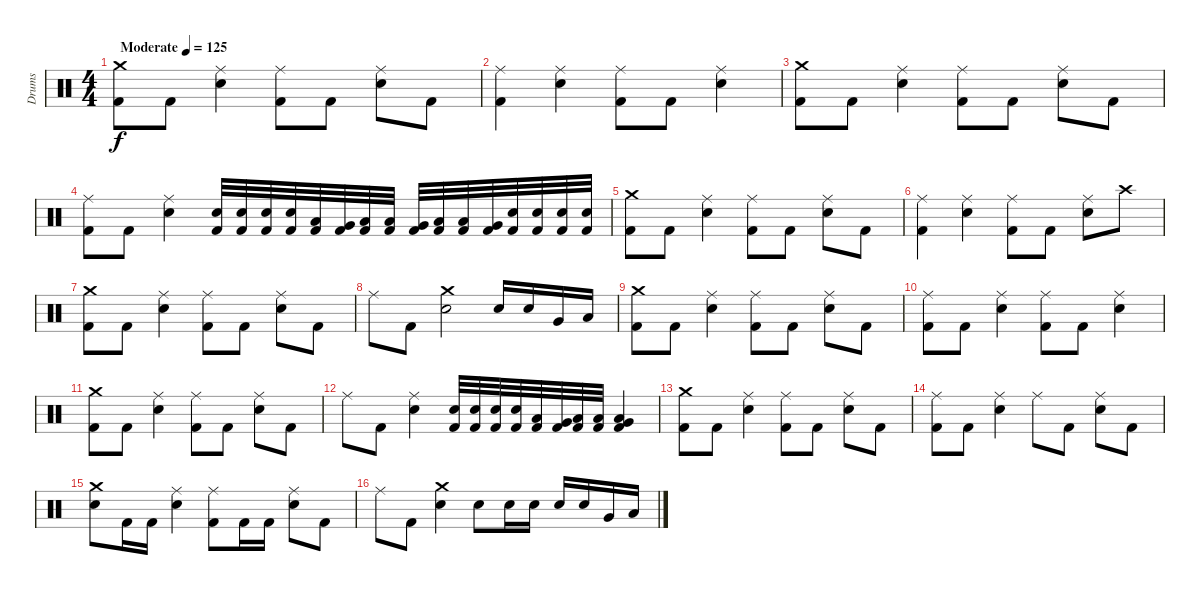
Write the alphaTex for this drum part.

\track ("Drums" "Drums") {instrument percussion}
\staff {score}
\articulation defaults
\ts (4 4)
\tempo (125 "Moderate")
\clef neutral
\ks c
("Crash medium (hit)" "Kick (hit) 2").8{dy f} "Kick (hit) 2".8 ("Ride (middle)" "Electric Snare (hit)").4 ("Ride (middle)" "Kick (hit) 2").8 "Kick (hit) 2".8 ("Ride (middle)" "Electric Snare (hit)").8 "Kick (hit) 2".8 |
("Ride (middle)" "Kick (hit) 2").4 ("Ride (middle)" "Electric Snare (hit)").4 ("Ride (middle)" "Kick (hit) 2").8 "Kick (hit) 2".8 ("Ride (middle)" "Electric Snare (hit)").4 |
("Crash medium (hit)" "Kick (hit) 2").8 "Kick (hit) 2".8 ("Ride (middle)" "Electric Snare (hit)").4 ("Ride (middle)" "Kick (hit) 2").8 "Kick (hit) 2".8 ("Ride (middle)" "Electric Snare (hit)").8 "Kick (hit) 2".8 |
("Ride (middle)" "Kick (hit) 2").8 "Kick (hit) 2".8 ("Ride (middle)" "Electric Snare (hit)").4 ("Electric Snare (hit)" "Kick (hit) 2").32 ("Electric Snare (hit)" "Kick (hit) 2").32 ("Electric Snare (hit)" "Kick (hit) 2").32 ("Electric Snare (hit)" "Kick (hit) 2").32 ("Low Tom (hit)" "Kick (hit) 2").32 ("Very Low Tom (hit)" "Kick (hit) 2").32 ("Low Floor Tom (hit)" "Kick (hit) 2").32 ("Low Tom (hit)" "Kick (hit) 2").32 ("Very Low Tom (hit)" "Kick (hit) 2").32 ("Low Floor Tom (hit)" "Kick (hit) 2").32 ("Low Tom (hit)" "Kick (hit) 2").32 ("Very Low Tom (hit)" "Kick (hit) 2").32 ("Electric Snare (hit)" "Kick (hit) 2").32 ("Electric Snare (hit)" "Kick (hit) 2").32 ("Electric Snare (hit)" "Kick (hit) 2").32 ("Electric Snare (hit)" "Kick (hit) 2").32 |
("Crash medium (hit)" "Kick (hit) 2").8 "Kick (hit) 2".8 ("Ride (middle)" "Electric Snare (hit)").4 ("Ride (middle)" "Kick (hit) 2").8 "Kick (hit) 2".8 ("Ride (middle)" "Electric Snare (hit)").8 "Kick (hit) 2".8 |
("Ride (middle)" "Kick (hit) 2").4 ("Ride (middle)" "Electric Snare (hit)").4 ("Ride (middle)" "Kick (hit) 2").8 "Kick (hit) 2".8 ("Ride (middle)" "Electric Snare (hit)").8 "Crash high (hit)".8 |
("Crash medium (hit)" "Kick (hit) 2").8 "Kick (hit) 2".8 ("Ride (middle)" "Electric Snare (hit)").4 ("Ride (middle)" "Kick (hit) 2").8 "Kick (hit) 2".8 ("Ride (middle)" "Electric Snare (hit)").8 "Kick (hit) 2".8 |
"Ride (middle)".8 "Kick (hit) 2".8 ("Crash medium (hit)" "Electric Snare (hit)").2 "Electric Snare (hit)".16 "Electric Snare (hit)".16 "Very Low Tom (hit)".16 "Low Floor Tom (hit)".16 |
("Crash medium (hit)" "Kick (hit) 2").8 "Kick (hit) 2".8 ("Ride (middle)" "Electric Snare (hit)").4 ("Ride (middle)" "Kick (hit) 2").8 "Kick (hit) 2".8 ("Ride (middle)" "Electric Snare (hit)").8 "Kick (hit) 2".8 |
("Ride (middle)" "Kick (hit) 2").8 "Kick (hit) 2".8 ("Ride (middle)" "Electric Snare (hit)").4 ("Ride (middle)" "Kick (hit) 2").8 "Kick (hit) 2".8 ("Ride (middle)" "Electric Snare (hit)").4 |
("Crash medium (hit)" "Kick (hit) 2").8 "Kick (hit) 2".8 ("Ride (middle)" "Electric Snare (hit)").4 ("Ride (middle)" "Kick (hit) 2").8 "Kick (hit) 2".8 ("Ride (middle)" "Electric Snare (hit)").8 "Kick (hit) 2".8 |
"Ride (middle)".8 "Kick (hit) 2".8 ("Ride (middle)" "Electric Snare (hit)").4 ("Electric Snare (hit)" "Kick (hit) 2").32 ("Electric Snare (hit)" "Kick (hit) 2").32 ("Electric Snare (hit)" "Kick (hit) 2").32 ("Electric Snare (hit)" "Kick (hit) 2").32 ("Low Tom (hit)" "Kick (hit) 2").32 ("Very Low Tom (hit)" "Kick (hit) 2").32 ("Low Floor Tom (hit)" "Kick (hit) 2").32 ("Low Tom (hit)" "Kick (hit) 2").32 ("Low Floor Tom (hit)" "Very Low Tom (hit)" "Kick (hit) 2").4 |
("Crash medium (hit)" "Kick (hit) 2").8 "Kick (hit) 2".8 ("Ride (middle)" "Electric Snare (hit)").4 ("Ride (middle)" "Kick (hit) 2").8 "Kick (hit) 2".8 ("Ride (middle)" "Electric Snare (hit)").8 "Kick (hit) 2".8 |
("Ride (middle)" "Kick (hit) 2").8 "Kick (hit) 2".8 ("Ride (middle)" "Electric Snare (hit)").4 "Ride (middle)".8 "Kick (hit) 2".8 ("Ride (middle)" "Electric Snare (hit)").8 "Kick (hit) 2".8 |
("Crash medium (hit)" "Electric Snare (hit)").8 "Kick (hit) 2".16 "Kick (hit) 2".16 ("Ride (middle)" "Electric Snare (hit)").4 ("Ride (middle)" "Kick (hit) 2").8 "Kick (hit) 2".16 "Kick (hit) 2".16 ("Ride (middle)" "Electric Snare (hit)").8 "Kick (hit) 2".8 |
"Ride (middle)".8 "Kick (hit) 2".8 ("Crash medium (hit)" "Electric Snare (hit)").4 "Electric Snare (hit)".8 "Electric Snare (hit)".16 "Electric Snare (hit)".16 "Electric Snare (hit)".16 "Electric Snare (hit)".16 "Very Low Tom (hit)".16 "Low Floor Tom (hit)".16
